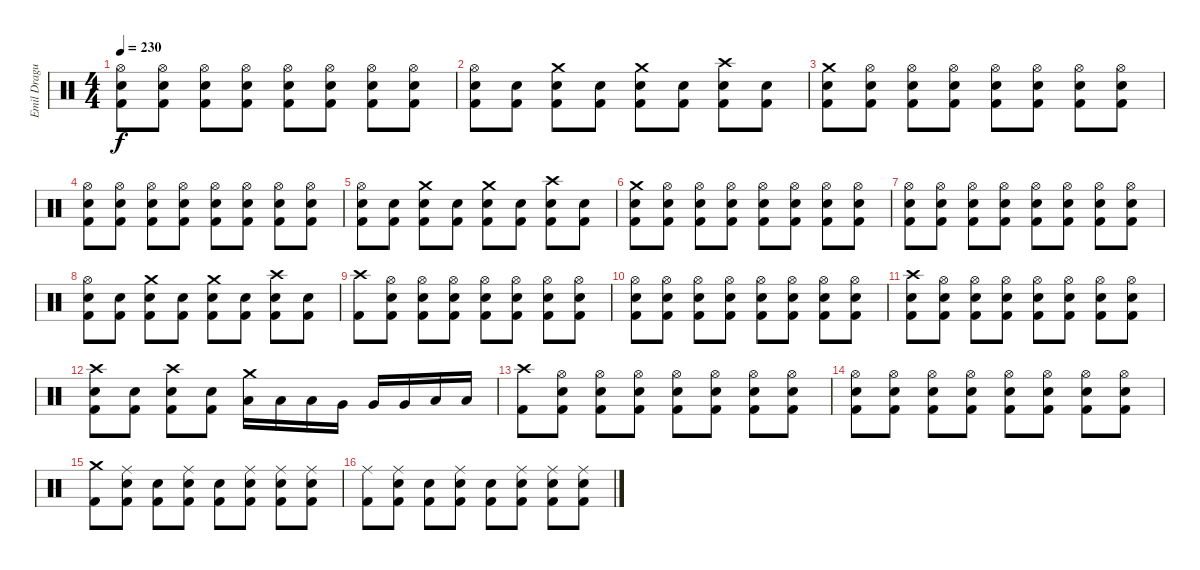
\track ("Emil Dragutinovic" "Emil Dragu") {instrument percussion}
\staff {score}
\articulation defaults
\ts (4 4)
\tempo 230
\clef neutral
\ks c
("Hi-Hat (open)" "Electric Snare (hit)" "Kick (hit) 2").8{dy f} ("Hi-Hat (open)" "Electric Snare (hit)" "Kick (hit) 2").8 ("Hi-Hat (open)" "Electric Snare (hit)" "Kick (hit) 2").8 ("Hi-Hat (open)" "Electric Snare (hit)" "Kick (hit) 2").8 ("Hi-Hat (open)" "Electric Snare (hit)" "Kick (hit) 2").8 ("Hi-Hat (open)" "Electric Snare (hit)" "Kick (hit) 2").8 ("Hi-Hat (open)" "Electric Snare (hit)" "Kick (hit) 2").8 ("Hi-Hat (open)" "Electric Snare (hit)" "Kick (hit) 2").8 |
("Hi-Hat (open)" "Electric Snare (hit)" "Kick (hit) 2").8 ("Electric Snare (hit)" "Kick (hit) 2").8 ("Crash medium (hit)" "Electric Snare (hit)" "Kick (hit) 2").8 ("Electric Snare (hit)" "Kick (hit) 2").8 ("Crash medium (hit)" "Electric Snare (hit)" "Kick (hit) 2").8 ("Electric Snare (hit)" "Kick (hit) 2").8 ("Crash high (hit)" "Electric Snare (hit)" "Kick (hit) 2").8 ("Electric Snare (hit)" "Kick (hit) 2").8 |
("Crash medium (hit)" "Electric Snare (hit)" "Kick (hit) 2").8 ("Hi-Hat (open)" "Electric Snare (hit)" "Kick (hit) 2").8 ("Hi-Hat (open)" "Electric Snare (hit)" "Kick (hit) 2").8 ("Hi-Hat (open)" "Electric Snare (hit)" "Kick (hit) 2").8 ("Hi-Hat (open)" "Electric Snare (hit)" "Kick (hit) 2").8 ("Hi-Hat (open)" "Electric Snare (hit)" "Kick (hit) 2").8 ("Hi-Hat (open)" "Electric Snare (hit)" "Kick (hit) 2").8 ("Hi-Hat (open)" "Electric Snare (hit)" "Kick (hit) 2").8 |
("Hi-Hat (open)" "Electric Snare (hit)" "Kick (hit) 2").8 ("Hi-Hat (open)" "Electric Snare (hit)" "Kick (hit) 2").8 ("Hi-Hat (open)" "Electric Snare (hit)" "Kick (hit) 2").8 ("Hi-Hat (open)" "Electric Snare (hit)" "Kick (hit) 2").8 ("Hi-Hat (open)" "Electric Snare (hit)" "Kick (hit) 2").8 ("Hi-Hat (open)" "Electric Snare (hit)" "Kick (hit) 2").8 ("Hi-Hat (open)" "Electric Snare (hit)" "Kick (hit) 2").8 ("Hi-Hat (open)" "Electric Snare (hit)" "Kick (hit) 2").8 |
("Hi-Hat (open)" "Electric Snare (hit)" "Kick (hit) 2").8 ("Electric Snare (hit)" "Kick (hit) 2").8 ("Crash medium (hit)" "Electric Snare (hit)" "Kick (hit) 2").8 ("Electric Snare (hit)" "Kick (hit) 2").8 ("Crash medium (hit)" "Electric Snare (hit)" "Kick (hit) 2").8 ("Electric Snare (hit)" "Kick (hit) 2").8 ("Crash high (hit)" "Electric Snare (hit)" "Kick (hit) 2").8 ("Electric Snare (hit)" "Kick (hit) 2").8 |
("Crash medium (hit)" "Electric Snare (hit)" "Kick (hit) 2").8 ("Hi-Hat (open)" "Electric Snare (hit)" "Kick (hit) 2").8 ("Hi-Hat (open)" "Electric Snare (hit)" "Kick (hit) 2").8 ("Hi-Hat (open)" "Electric Snare (hit)" "Kick (hit) 2").8 ("Hi-Hat (open)" "Electric Snare (hit)" "Kick (hit) 2").8 ("Hi-Hat (open)" "Electric Snare (hit)" "Kick (hit) 2").8 ("Hi-Hat (open)" "Electric Snare (hit)" "Kick (hit) 2").8 ("Hi-Hat (open)" "Electric Snare (hit)" "Kick (hit) 2").8 |
("Hi-Hat (open)" "Electric Snare (hit)" "Kick (hit) 2").8 ("Hi-Hat (open)" "Electric Snare (hit)" "Kick (hit) 2").8 ("Hi-Hat (open)" "Electric Snare (hit)" "Kick (hit) 2").8 ("Hi-Hat (open)" "Electric Snare (hit)" "Kick (hit) 2").8 ("Hi-Hat (open)" "Electric Snare (hit)" "Kick (hit) 2").8 ("Hi-Hat (open)" "Electric Snare (hit)" "Kick (hit) 2").8 ("Hi-Hat (open)" "Electric Snare (hit)" "Kick (hit) 2").8 ("Hi-Hat (open)" "Electric Snare (hit)" "Kick (hit) 2").8 |
("Hi-Hat (open)" "Electric Snare (hit)" "Kick (hit) 2").8 ("Electric Snare (hit)" "Kick (hit) 2").8 ("Crash medium (hit)" "Electric Snare (hit)" "Kick (hit) 2").8 ("Electric Snare (hit)" "Kick (hit) 2").8 ("Crash medium (hit)" "Electric Snare (hit)" "Kick (hit) 2").8 ("Electric Snare (hit)" "Kick (hit) 2").8 ("Crash high (hit)" "Electric Snare (hit)" "Kick (hit) 2").8 ("Electric Snare (hit)" "Kick (hit) 2").8 |
("Crash high (hit)" "Kick (hit) 2").8 ("Hi-Hat (open)" "Electric Snare (hit)" "Kick (hit) 2").8 ("Hi-Hat (open)" "Electric Snare (hit)" "Kick (hit) 2").8 ("Hi-Hat (open)" "Electric Snare (hit)" "Kick (hit) 2").8 ("Hi-Hat (open)" "Electric Snare (hit)" "Kick (hit) 2").8 ("Hi-Hat (open)" "Electric Snare (hit)" "Kick (hit) 2").8 ("Hi-Hat (open)" "Electric Snare (hit)" "Kick (hit) 2").8 ("Hi-Hat (open)" "Electric Snare (hit)" "Kick (hit) 2").8 |
("Hi-Hat (open)" "Electric Snare (hit)" "Kick (hit) 2").8 ("Hi-Hat (open)" "Electric Snare (hit)" "Kick (hit) 2").8 ("Hi-Hat (open)" "Electric Snare (hit)" "Kick (hit) 2").8 ("Hi-Hat (open)" "Electric Snare (hit)" "Kick (hit) 2").8 ("Hi-Hat (open)" "Electric Snare (hit)" "Kick (hit) 2").8 ("Hi-Hat (open)" "Electric Snare (hit)" "Kick (hit) 2").8 ("Hi-Hat (open)" "Electric Snare (hit)" "Kick (hit) 2").8 ("Hi-Hat (open)" "Electric Snare (hit)" "Kick (hit) 2").8 |
("Crash high (hit)" "Electric Snare (hit)" "Kick (hit) 2").8 ("Hi-Hat (open)" "Electric Snare (hit)" "Kick (hit) 2").8 ("Hi-Hat (open)" "Electric Snare (hit)" "Kick (hit) 2").8 ("Hi-Hat (open)" "Electric Snare (hit)" "Kick (hit) 2").8 ("Hi-Hat (open)" "Electric Snare (hit)" "Kick (hit) 2").8 ("Hi-Hat (open)" "Electric Snare (hit)" "Kick (hit) 2").8 ("Hi-Hat (open)" "Electric Snare (hit)" "Kick (hit) 2").8 ("Hi-Hat (open)" "Electric Snare (hit)" "Kick (hit) 2").8 |
("Crash high (hit)" "Electric Snare (hit)" "Kick (hit) 2").8 ("Electric Snare (hit)" "Kick (hit) 2").8 ("Crash high (hit)" "Electric Snare (hit)" "Kick (hit) 2").8 ("Electric Snare (hit)" "Kick (hit) 2").8 ("Crash medium (hit)" "Low Tom (hit)").16 "Low Tom (hit)".16 "Low Tom (hit)".16 "Very Low Tom (hit)".16 "Very Low Tom (hit)".16 "Very Low Tom (hit)".16 "Low Floor Tom (hit)".16 "Low Floor Tom (hit)".16 |
("Crash high (hit)" "Kick (hit) 2").8 ("Hi-Hat (open)" "Electric Snare (hit)" "Kick (hit) 2").8 ("Hi-Hat (open)" "Electric Snare (hit)" "Kick (hit) 2").8 ("Hi-Hat (open)" "Electric Snare (hit)" "Kick (hit) 2").8 ("Hi-Hat (open)" "Electric Snare (hit)" "Kick (hit) 2").8 ("Hi-Hat (open)" "Electric Snare (hit)" "Kick (hit) 2").8 ("Hi-Hat (open)" "Electric Snare (hit)" "Kick (hit) 2").8 ("Hi-Hat (open)" "Electric Snare (hit)" "Kick (hit) 2").8 |
("Hi-Hat (open)" "Electric Snare (hit)" "Kick (hit) 2").8 ("Hi-Hat (open)" "Electric Snare (hit)" "Kick (hit) 2").8 ("Hi-Hat (open)" "Electric Snare (hit)" "Kick (hit) 2").8 ("Hi-Hat (open)" "Electric Snare (hit)" "Kick (hit) 2").8 ("Hi-Hat (open)" "Electric Snare (hit)" "Kick (hit) 2").8 ("Hi-Hat (open)" "Electric Snare (hit)" "Kick (hit) 2").8 ("Hi-Hat (open)" "Electric Snare (hit)" "Kick (hit) 2").8 ("Hi-Hat (open)" "Electric Snare (hit)" "Kick (hit) 2").8 |
("Crash medium (hit)" "Kick (hit) 2").8 ("Ride (middle)" "Electric Snare (hit)" "Kick (hit) 2").8 ("Electric Snare (hit)" "Kick (hit) 2").8 ("Ride (middle)" "Electric Snare (hit)" "Kick (hit) 2").8 ("Electric Snare (hit)" "Kick (hit) 2").8 ("Ride (middle)" "Electric Snare (hit)" "Kick (hit) 2").8 ("Ride (middle)" "Electric Snare (hit)" "Kick (hit) 2").8 ("Ride (middle)" "Electric Snare (hit)" "Kick (hit) 2").8 |
("Ride (middle)" "Kick (hit) 2").8 ("Ride (middle)" "Electric Snare (hit)" "Kick (hit) 2").8 ("Electric Snare (hit)" "Kick (hit) 2").8 ("Ride (middle)" "Electric Snare (hit)" "Kick (hit) 2").8 ("Electric Snare (hit)" "Kick (hit) 2").8 ("Ride (middle)" "Electric Snare (hit)" "Kick (hit) 2").8 ("Ride (middle)" "Electric Snare (hit)" "Kick (hit) 2").8 ("Ride (middle)" "Electric Snare (hit)" "Kick (hit) 2").8
